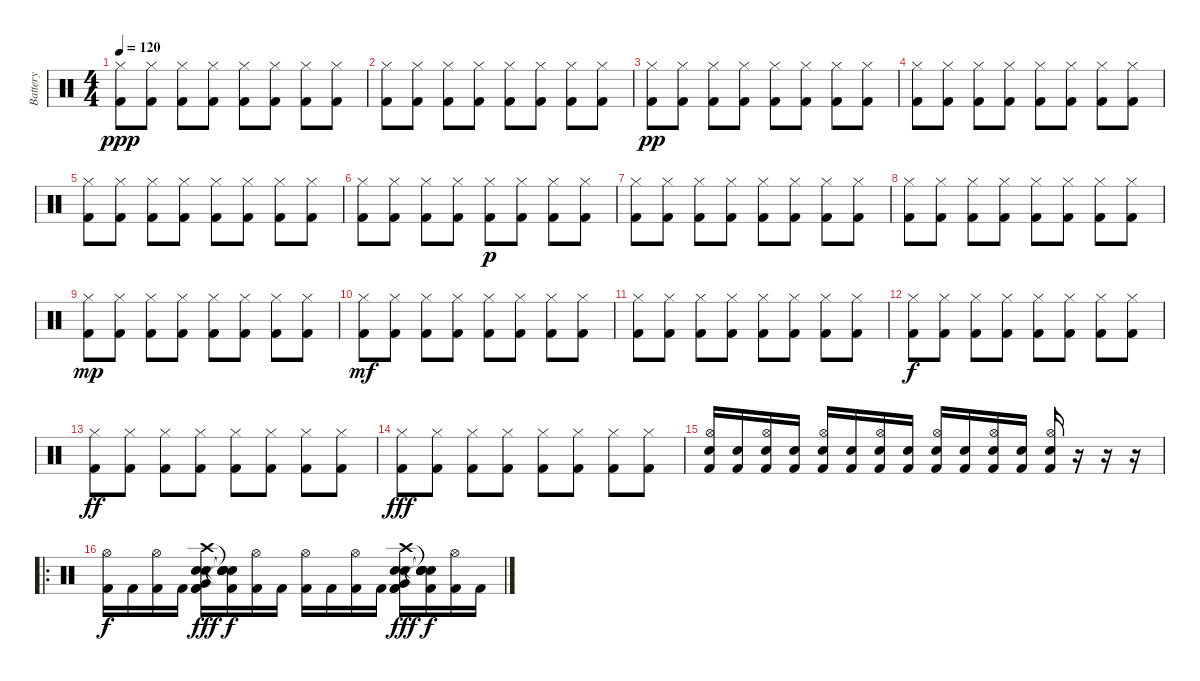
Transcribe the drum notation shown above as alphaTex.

\track ("Battery" "Battery") {instrument percussion}
\staff {score}
\articulation defaults
\ts (4 4)
\tempo 120
\clef neutral
\ks c
("Hi-Hat (closed)" "Kick (hit) 2").8{dy ppp} ("Hi-Hat (closed)" "Kick (hit) 2").8 ("Hi-Hat (closed)" "Kick (hit) 2").8 ("Hi-Hat (closed)" "Kick (hit) 2").8 ("Hi-Hat (closed)" "Kick (hit) 2").8 ("Hi-Hat (closed)" "Kick (hit) 2").8 ("Hi-Hat (closed)" "Kick (hit) 2").8 ("Hi-Hat (closed)" "Kick (hit) 2").8 |
("Hi-Hat (closed)" "Kick (hit) 2").8 ("Hi-Hat (closed)" "Kick (hit) 2").8 ("Hi-Hat (closed)" "Kick (hit) 2").8 ("Hi-Hat (closed)" "Kick (hit) 2").8 ("Hi-Hat (closed)" "Kick (hit) 2").8 ("Hi-Hat (closed)" "Kick (hit) 2").8 ("Hi-Hat (closed)" "Kick (hit) 2").8 ("Hi-Hat (closed)" "Kick (hit) 2").8 |
("Hi-Hat (closed)" "Kick (hit) 2").8{dy pp} ("Hi-Hat (closed)" "Kick (hit) 2").8 ("Hi-Hat (closed)" "Kick (hit) 2").8 ("Hi-Hat (closed)" "Kick (hit) 2").8 ("Hi-Hat (closed)" "Kick (hit) 2").8 ("Hi-Hat (closed)" "Kick (hit) 2").8 ("Hi-Hat (closed)" "Kick (hit) 2").8 ("Hi-Hat (closed)" "Kick (hit) 2").8 |
("Hi-Hat (closed)" "Kick (hit) 2").8 ("Hi-Hat (closed)" "Kick (hit) 2").8 ("Hi-Hat (closed)" "Kick (hit) 2").8 ("Hi-Hat (closed)" "Kick (hit) 2").8 ("Hi-Hat (closed)" "Kick (hit) 2").8 ("Hi-Hat (closed)" "Kick (hit) 2").8 ("Hi-Hat (closed)" "Kick (hit) 2").8 ("Hi-Hat (closed)" "Kick (hit) 2").8 |
("Hi-Hat (closed)" "Kick (hit) 2").8 ("Hi-Hat (closed)" "Kick (hit) 2").8 ("Hi-Hat (closed)" "Kick (hit) 2").8 ("Hi-Hat (closed)" "Kick (hit) 2").8 ("Hi-Hat (closed)" "Kick (hit) 2").8 ("Hi-Hat (closed)" "Kick (hit) 2").8 ("Hi-Hat (closed)" "Kick (hit) 2").8 ("Hi-Hat (closed)" "Kick (hit) 2").8 |
("Hi-Hat (closed)" "Kick (hit) 2").8 ("Hi-Hat (closed)" "Kick (hit) 2").8 ("Hi-Hat (closed)" "Kick (hit) 2").8 ("Hi-Hat (closed)" "Kick (hit) 2").8 ("Hi-Hat (closed)" "Kick (hit) 2").8{dy p} ("Hi-Hat (closed)" "Kick (hit) 2").8 ("Hi-Hat (closed)" "Kick (hit) 2").8 ("Hi-Hat (closed)" "Kick (hit) 2").8 |
("Hi-Hat (closed)" "Kick (hit) 2").8 ("Hi-Hat (closed)" "Kick (hit) 2").8 ("Hi-Hat (closed)" "Kick (hit) 2").8 ("Hi-Hat (closed)" "Kick (hit) 2").8 ("Hi-Hat (closed)" "Kick (hit) 2").8 ("Hi-Hat (closed)" "Kick (hit) 2").8 ("Hi-Hat (closed)" "Kick (hit) 2").8 ("Hi-Hat (closed)" "Kick (hit) 2").8 |
("Hi-Hat (closed)" "Kick (hit) 2").8 ("Hi-Hat (closed)" "Kick (hit) 2").8 ("Hi-Hat (closed)" "Kick (hit) 2").8 ("Hi-Hat (closed)" "Kick (hit) 2").8 ("Hi-Hat (closed)" "Kick (hit) 2").8 ("Hi-Hat (closed)" "Kick (hit) 2").8 ("Hi-Hat (closed)" "Kick (hit) 2").8 ("Hi-Hat (closed)" "Kick (hit) 2").8 |
("Hi-Hat (closed)" "Kick (hit) 2").8{dy mp} ("Hi-Hat (closed)" "Kick (hit) 2").8 ("Hi-Hat (closed)" "Kick (hit) 2").8 ("Hi-Hat (closed)" "Kick (hit) 2").8 ("Hi-Hat (closed)" "Kick (hit) 2").8 ("Hi-Hat (closed)" "Kick (hit) 2").8 ("Hi-Hat (closed)" "Kick (hit) 2").8 ("Hi-Hat (closed)" "Kick (hit) 2").8 |
("Hi-Hat (closed)" "Kick (hit) 2").8{dy mf} ("Hi-Hat (closed)" "Kick (hit) 2").8 ("Hi-Hat (closed)" "Kick (hit) 2").8 ("Hi-Hat (closed)" "Kick (hit) 2").8 ("Hi-Hat (closed)" "Kick (hit) 2").8 ("Hi-Hat (closed)" "Kick (hit) 2").8 ("Hi-Hat (closed)" "Kick (hit) 2").8 ("Hi-Hat (closed)" "Kick (hit) 2").8 |
("Hi-Hat (closed)" "Kick (hit) 2").8 ("Hi-Hat (closed)" "Kick (hit) 2").8 ("Hi-Hat (closed)" "Kick (hit) 2").8 ("Hi-Hat (closed)" "Kick (hit) 2").8 ("Hi-Hat (closed)" "Kick (hit) 2").8 ("Hi-Hat (closed)" "Kick (hit) 2").8 ("Hi-Hat (closed)" "Kick (hit) 2").8 ("Hi-Hat (closed)" "Kick (hit) 2").8 |
("Hi-Hat (closed)" "Kick (hit) 2").8{dy f} ("Hi-Hat (closed)" "Kick (hit) 2").8 ("Hi-Hat (closed)" "Kick (hit) 2").8 ("Hi-Hat (closed)" "Kick (hit) 2").8 ("Hi-Hat (closed)" "Kick (hit) 2").8 ("Hi-Hat (closed)" "Kick (hit) 2").8 ("Hi-Hat (closed)" "Kick (hit) 2").8 ("Hi-Hat (closed)" "Kick (hit) 2").8 |
("Hi-Hat (closed)" "Kick (hit) 2").8{dy ff} ("Hi-Hat (closed)" "Kick (hit) 2").8 ("Hi-Hat (closed)" "Kick (hit) 2").8 ("Hi-Hat (closed)" "Kick (hit) 2").8 ("Hi-Hat (closed)" "Kick (hit) 2").8 ("Hi-Hat (closed)" "Kick (hit) 2").8 ("Hi-Hat (closed)" "Kick (hit) 2").8 ("Hi-Hat (closed)" "Kick (hit) 2").8 |
("Hi-Hat (closed)" "Kick (hit) 2").8{dy fff} ("Hi-Hat (closed)" "Kick (hit) 2").8 ("Hi-Hat (closed)" "Kick (hit) 2").8 ("Hi-Hat (closed)" "Kick (hit) 2").8 ("Hi-Hat (closed)" "Kick (hit) 2").8 ("Hi-Hat (closed)" "Kick (hit) 2").8 ("Hi-Hat (closed)" "Kick (hit) 2").8 ("Hi-Hat (closed)" "Kick (hit) 2").8 |
("Hi-Hat (open)" "Electric Snare (hit)" "Kick (hit) 2").16 ("Electric Snare (hit)" "Kick (hit) 2").16 ("Hi-Hat (open)" "Electric Snare (hit)" "Kick (hit) 2").16 ("Electric Snare (hit)" "Kick (hit) 2").16 ("Hi-Hat (open)" "Electric Snare (hit)" "Kick (hit) 2").16 ("Electric Snare (hit)" "Kick (hit) 2").16 ("Hi-Hat (open)" "Electric Snare (hit)" "Kick (hit) 2").16 ("Electric Snare (hit)" "Kick (hit) 2").16 ("Hi-Hat (open)" "Electric Snare (hit)" "Kick (hit) 2").16 ("Electric Snare (hit)" "Kick (hit) 2").16 ("Hi-Hat (open)" "Electric Snare (hit)" "Kick (hit) 2").16 ("Electric Snare (hit)" "Kick (hit) 2").16 ("Hi-Hat (open)" "Electric Snare (hit)" "Kick (hit) 2").16 r.16 r.16 r.16 |
\ro
("Hi-Hat (open)" "Kick (hit) 2").16{dy f} "Kick (hit) 2".16 ("Hi-Hat (open)" "Kick (hit) 2").16 "Kick (hit) 2".16 ("Crash high (hit)" "Kick (hit) 2" "Electric Snare (hit)" "Very Low Tom (hit)" "Electric Snare (hit)" "Kick (hit) 2").16{dy fff} ("Snare (hit)"{t} "Snare (hit)"{t} "Snare (hit)"{t} "Snare (hit)"{t} "Electric Snare (hit)"{t} "Kick (hit) 2").16{dy f} ("Hi-Hat (open)" "Kick (hit) 2").16 "Kick (hit) 2".16 ("Hi-Hat (open)" "Kick (hit) 2").16 "Kick (hit) 2".16 ("Hi-Hat (open)" "Kick (hit) 2").16 "Kick (hit) 2".16 ("Crash high (hit)" "Kick (hit) 2" "Electric Snare (hit)" "Very Low Tom (hit)" "Electric Snare (hit)" "Kick (hit) 2").16{dy fff} ("Snare (hit)"{t} "Snare (hit)"{t} "Snare (hit)"{t} "Snare (hit)"{t} "Snare (hit)"{t} "Kick (hit) 2").16{dy f} ("Hi-Hat (open)" "Kick (hit) 2").16 "Kick (hit) 2".16
